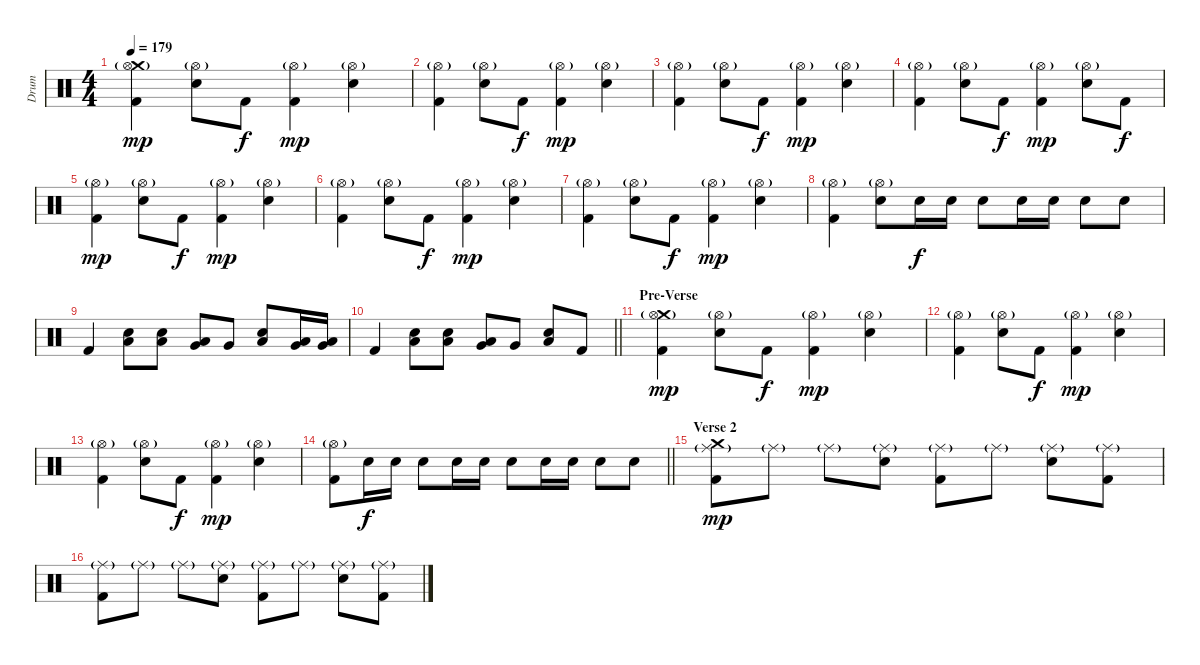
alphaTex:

\track ("Drum" "Drum") {instrument percussion}
\staff {score}
\articulation defaults
\ts (4 4)
\tempo 179
\clef neutral
\ks c
("Crash medium (hit)" "Hi-Hat (open)"{g} "Kick (hit) 2").4{dy mp} ("Hi-Hat (open)"{g} "Electric Snare (hit)").8 "Kick (hit) 2".8{dy f} ("Hi-Hat (open)"{g} "Kick (hit) 2").4{dy mp} ("Hi-Hat (open)"{g} "Electric Snare (hit)").4 |
("Hi-Hat (open)"{g} "Kick (hit) 2").4 ("Hi-Hat (open)"{g} "Electric Snare (hit)").8 "Kick (hit) 2".8{dy f} ("Hi-Hat (open)"{g} "Kick (hit) 2").4{dy mp} ("Hi-Hat (open)"{g} "Electric Snare (hit)").4 |
("Hi-Hat (open)"{g} "Kick (hit) 2").4 ("Hi-Hat (open)"{g} "Electric Snare (hit)").8 "Kick (hit) 2".8{dy f} ("Hi-Hat (open)"{g} "Kick (hit) 2").4{dy mp} ("Hi-Hat (open)"{g} "Electric Snare (hit)").4 |
("Hi-Hat (open)"{g} "Kick (hit) 2").4 ("Hi-Hat (open)"{g} "Electric Snare (hit)").8 "Kick (hit) 2".8{dy f} ("Hi-Hat (open)"{g} "Kick (hit) 2").4{dy mp} ("Hi-Hat (open)"{g} "Electric Snare (hit)").8 "Kick (hit) 2".8{dy f} |
("Hi-Hat (open)"{g} "Kick (hit) 2").4{dy mp} ("Hi-Hat (open)"{g} "Electric Snare (hit)").8 "Kick (hit) 2".8{dy f} ("Hi-Hat (open)"{g} "Kick (hit) 2").4{dy mp} ("Hi-Hat (open)"{g} "Electric Snare (hit)").4 |
("Hi-Hat (open)"{g} "Kick (hit) 2").4 ("Hi-Hat (open)"{g} "Electric Snare (hit)").8 "Kick (hit) 2".8{dy f} ("Hi-Hat (open)"{g} "Kick (hit) 2").4{dy mp} ("Hi-Hat (open)"{g} "Electric Snare (hit)").4 |
("Hi-Hat (open)"{g} "Kick (hit) 2").4 ("Hi-Hat (open)"{g} "Electric Snare (hit)").8 "Kick (hit) 2".8{dy f} ("Hi-Hat (open)"{g} "Kick (hit) 2").4{dy mp} ("Hi-Hat (open)"{g} "Electric Snare (hit)").4 |
("Hi-Hat (open)"{g} "Kick (hit) 2").4 ("Hi-Hat (open)"{g} "Electric Snare (hit)").8 "Electric Snare (hit)".16{dy f} "Electric Snare (hit)".16 "Electric Snare (hit)".8 "Electric Snare (hit)".16 "Electric Snare (hit)".16 "Electric Snare (hit)".8 "Electric Snare (hit)".8 |
"Kick (hit) 2".4 ("Electric Snare (hit)" "Low Floor Tom (hit)").8 ("Electric Snare (hit)" "Low Floor Tom (hit)").8 ("Low Tom (hit)" "Very Low Tom (hit)").8 "Very Low Tom (hit)".8 ("Electric Snare (hit)" "Low Floor Tom (hit)").8 ("Low Tom (hit)" "Very Low Tom (hit)").16 ("Low Tom (hit)" "Very Low Tom (hit)").16 |
\barLineRight lightlight "Kick (hit) 2".4
("Electric Snare (hit)" "Low Floor Tom (hit)").8 ("Electric Snare (hit)" "Low Floor Tom (hit)").8 ("Low Tom (hit)" "Very Low Tom (hit)").8 "Very Low Tom (hit)".8 ("Electric Snare (hit)" "Low Floor Tom (hit)").8 "Kick (hit) 2".8 |
\section ("" "Pre-Verse")
("Crash medium (hit)" "Hi-Hat (open)"{g} "Kick (hit) 2").4{dy mp} ("Hi-Hat (open)"{g} "Electric Snare (hit)").8 "Kick (hit) 2".8{dy f} ("Hi-Hat (open)"{g} "Kick (hit) 2").4{dy mp} ("Hi-Hat (open)"{g} "Electric Snare (hit)").4 |
("Hi-Hat (open)"{g} "Kick (hit) 2").4 ("Hi-Hat (open)"{g} "Electric Snare (hit)").8 "Kick (hit) 2".8{dy f} ("Hi-Hat (open)"{g} "Kick (hit) 2").4{dy mp} ("Hi-Hat (open)"{g} "Electric Snare (hit)").4 |
("Hi-Hat (open)"{g} "Kick (hit) 2").4 ("Hi-Hat (open)"{g} "Electric Snare (hit)").8 "Kick (hit) 2".8{dy f} ("Hi-Hat (open)"{g} "Kick (hit) 2").4{dy mp} ("Hi-Hat (open)"{g} "Electric Snare (hit)").4 |
\barLineRight lightlight
("Hi-Hat (open)"{g} "Kick (hit) 2").8 "Electric Snare (hit)".16{dy f} "Electric Snare (hit)".16 "Electric Snare (hit)".8 "Electric Snare (hit)".16 "Electric Snare (hit)".16 "Electric Snare (hit)".8 "Electric Snare (hit)".16 "Electric Snare (hit)".16 "Electric Snare (hit)".8 "Electric Snare (hit)".8 |
\section ("" "Verse 2")
("Crash medium (hit)" "Ride (middle)"{g} "Kick (hit) 2").8{dy mp} "Ride (middle)"{g}.8 "Ride (middle)"{g}.8 ("Ride (middle)"{g} "Electric Snare (hit)").8 ("Ride (middle)"{g} "Kick (hit) 2").8 "Ride (middle)"{g}.8 ("Ride (middle)"{g} "Electric Snare (hit)").8 ("Ride (middle)"{g} "Kick (hit) 2").8 |
("Ride (middle)"{g} "Kick (hit) 2").8 "Ride (middle)"{g}.8 "Ride (middle)"{g}.8 ("Ride (middle)"{g} "Electric Snare (hit)").8 ("Ride (middle)"{g} "Kick (hit) 2").8 "Ride (middle)"{g}.8 ("Ride (middle)"{g} "Electric Snare (hit)").8 ("Ride (middle)"{g} "Kick (hit) 2").8
